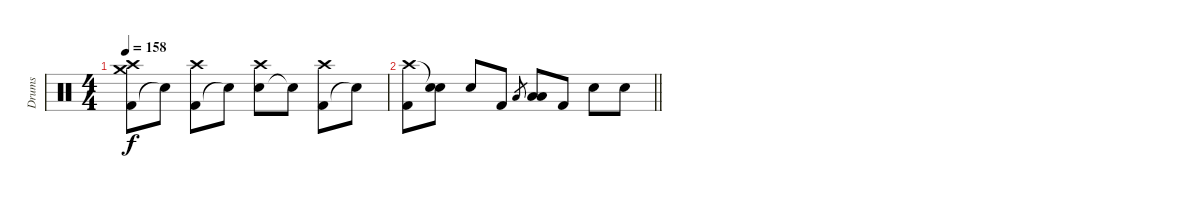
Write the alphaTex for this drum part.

\track ("Drums" "Drums") {instrument percussion}
\staff {score}
\articulation defaults
\ts (4 4)
\tempo 158
\clef neutral
\ks c
("Kick (hit) 2" "Crash medium (hit)" "Crash high (hit)").8{dy f} "Snare (hit)"{t}.8 ("Kick (hit) 2" "Crash high (hit)").8 "Snare (hit)"{t}.8 ("Electric Snare (hit)" "Crash high (hit)").8 "Snare (hit)"{t}.8 ("Kick (hit) 2" "Crash high (hit)").8 "Snare (hit)"{t}.8 |
\barLineRight lightlight
("Kick (hit) 2" "Crash high (hit)").8 ("Electric Snare (hit)" "Snare (hit)"{t}).8 "Electric Snare (hit)".8 "Kick (hit) 2".8 "Low Tom (hit)".8{gr} ("Low Tom (hit)" "Low Floor Tom (hit)").8 "Kick (hit) 2".8 "Electric Snare (hit)".8 "Electric Snare (hit)".8
